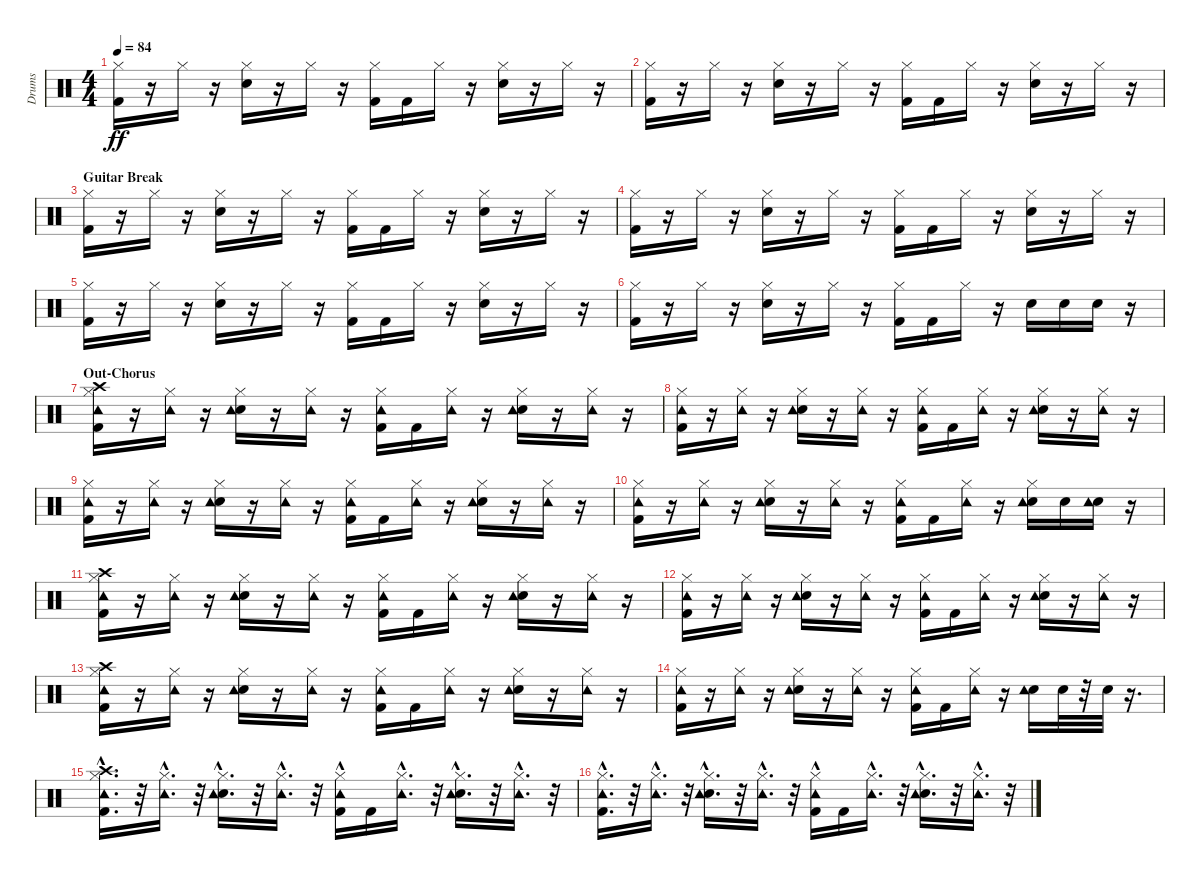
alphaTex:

\track ("Drums" "Drums") {instrument percussion}
\staff {score}
\articulation defaults
\ts (4 4)
\tempo 84
\clef neutral
\ks c
("Kick (hit) 2" "Hi-Hat (closed)").16{dy ff} r.16 "Hi-Hat (closed)".16 r.16 ("Snare (hit) 2" "Hi-Hat (closed)").16 r.16 "Hi-Hat (closed)".16 r.16 ("Kick (hit) 2" "Hi-Hat (closed)").16 "Kick (hit) 2".16 "Hi-Hat (closed)".16 r.16 ("Snare (hit) 2" "Hi-Hat (closed)").16 r.16 "Hi-Hat (closed)".16 r.16 |
("Kick (hit) 2" "Hi-Hat (closed)").16 r.16 "Hi-Hat (closed)".16 r.16 ("Snare (hit) 2" "Hi-Hat (closed)").16 r.16 "Hi-Hat (closed)".16 r.16 ("Kick (hit) 2" "Hi-Hat (closed)").16 "Kick (hit) 2".16 "Hi-Hat (closed)".16 r.16 ("Snare (hit) 2" "Hi-Hat (closed)").16 r.16 "Hi-Hat (closed)".16 r.16 |
\section ("" "Guitar Break")
("Kick (hit) 2" "Hi-Hat (closed)").16 r.16 "Hi-Hat (closed)".16 r.16 ("Snare (hit) 2" "Hi-Hat (closed)").16 r.16 "Hi-Hat (closed)".16 r.16 ("Kick (hit) 2" "Hi-Hat (closed)").16 "Kick (hit) 2".16 "Hi-Hat (closed)".16 r.16 ("Snare (hit) 2" "Hi-Hat (closed)").16 r.16 "Hi-Hat (closed)".16 r.16 |
("Kick (hit) 2" "Hi-Hat (closed)").16 r.16 "Hi-Hat (closed)".16 r.16 ("Snare (hit) 2" "Hi-Hat (closed)").16 r.16 "Hi-Hat (closed)".16 r.16 ("Kick (hit) 2" "Hi-Hat (closed)").16 "Kick (hit) 2".16 "Hi-Hat (closed)".16 r.16 ("Snare (hit) 2" "Hi-Hat (closed)").16 r.16 "Hi-Hat (closed)".16 r.16 |
("Kick (hit) 2" "Hi-Hat (closed)").16 r.16 "Hi-Hat (closed)".16 r.16 ("Snare (hit) 2" "Hi-Hat (closed)").16 r.16 "Hi-Hat (closed)".16 r.16 ("Kick (hit) 2" "Hi-Hat (closed)").16 "Kick (hit) 2".16 "Hi-Hat (closed)".16 r.16 ("Snare (hit) 2" "Hi-Hat (closed)").16 r.16 "Hi-Hat (closed)".16 r.16 |
("Kick (hit) 2" "Hi-Hat (closed)").16 r.16 "Hi-Hat (closed)".16 r.16 ("Snare (hit) 2" "Hi-Hat (closed)").16 r.16 "Hi-Hat (closed)".16 r.16 ("Kick (hit) 2" "Hi-Hat (closed)").16 "Kick (hit) 2".16 "Hi-Hat (closed)".16 r.16 "Snare (hit) 2".16 "Snare (hit) 2".16 "Snare (hit) 2".16 r.16 |
\section ("" "Out-Chorus")
("Kick (hit) 2" "Hi-Hat (closed)" "Crash high (hit)" "Tambourine (hit)").16 r.16 ("Hi-Hat (closed)" "Tambourine (hit)").16 r.16 ("Snare (hit) 2" "Hi-Hat (closed)" "Tambourine (hit)").16 r.16 ("Hi-Hat (closed)" "Tambourine (hit)").16 r.16 ("Kick (hit) 2" "Hi-Hat (closed)" "Tambourine (hit)").16 "Kick (hit) 2".16 ("Hi-Hat (closed)" "Tambourine (hit)").16 r.16 ("Snare (hit) 2" "Hi-Hat (closed)" "Tambourine (hit)").16 r.16 ("Hi-Hat (closed)" "Tambourine (hit)").16 r.16 |
("Kick (hit) 2" "Hi-Hat (closed)" "Tambourine (hit)").16 r.16 ("Hi-Hat (closed)" "Tambourine (hit)").16 r.16 ("Snare (hit) 2" "Hi-Hat (closed)" "Tambourine (hit)").16 r.16 ("Hi-Hat (closed)" "Tambourine (hit)").16 r.16 ("Kick (hit) 2" "Hi-Hat (closed)" "Tambourine (hit)").16 "Kick (hit) 2".16 ("Hi-Hat (closed)" "Tambourine (hit)").16 r.16 ("Snare (hit) 2" "Hi-Hat (closed)" "Tambourine (hit)").16 r.16 ("Hi-Hat (closed)" "Tambourine (hit)").16 r.16 |
("Kick (hit) 2" "Hi-Hat (closed)" "Tambourine (hit)").16 r.16 ("Hi-Hat (closed)" "Tambourine (hit)").16 r.16 ("Snare (hit) 2" "Hi-Hat (closed)" "Tambourine (hit)").16 r.16 ("Hi-Hat (closed)" "Tambourine (hit)").16 r.16 ("Kick (hit) 2" "Hi-Hat (closed)" "Tambourine (hit)").16 "Kick (hit) 2".16 ("Hi-Hat (closed)" "Tambourine (hit)").16 r.16 ("Snare (hit) 2" "Hi-Hat (closed)" "Tambourine (hit)").16 r.16 ("Hi-Hat (closed)" "Tambourine (hit)").16 r.16 |
("Kick (hit) 2" "Hi-Hat (closed)" "Tambourine (hit)").16 r.16 ("Hi-Hat (closed)" "Tambourine (hit)").16 r.16 ("Snare (hit) 2" "Hi-Hat (closed)" "Tambourine (hit)").16 r.16 ("Hi-Hat (closed)" "Tambourine (hit)").16 r.16 ("Kick (hit) 2" "Hi-Hat (closed)" "Tambourine (hit)").16 "Kick (hit) 2".16 ("Hi-Hat (closed)" "Tambourine (hit)").16 r.16 ("Snare (hit) 2" "Hi-Hat (closed)" "Tambourine (hit)").16 "Snare (hit) 2".16 ("Snare (hit) 2" "Tambourine (hit)").16 r.16 |
("Kick (hit) 2" "Hi-Hat (closed)" "Crash high (hit)" "Tambourine (hit)").16 r.16 ("Hi-Hat (closed)" "Tambourine (hit)").16 r.16 ("Snare (hit) 2" "Hi-Hat (closed)" "Tambourine (hit)").16 r.16 ("Hi-Hat (closed)" "Tambourine (hit)").16 r.16 ("Kick (hit) 2" "Hi-Hat (closed)" "Tambourine (hit)").16 "Kick (hit) 2".16 ("Hi-Hat (closed)" "Tambourine (hit)").16 r.16 ("Snare (hit) 2" "Hi-Hat (closed)" "Tambourine (hit)").16 r.16 ("Hi-Hat (closed)" "Tambourine (hit)").16 r.16 |
("Kick (hit) 2" "Hi-Hat (closed)" "Tambourine (hit)").16 r.16 ("Hi-Hat (closed)" "Tambourine (hit)").16 r.16 ("Snare (hit) 2" "Hi-Hat (closed)" "Tambourine (hit)").16 r.16 ("Hi-Hat (closed)" "Tambourine (hit)").16 r.16 ("Kick (hit) 2" "Hi-Hat (closed)" "Tambourine (hit)").16 "Kick (hit) 2".16 ("Hi-Hat (closed)" "Tambourine (hit)").16 r.16 ("Snare (hit) 2" "Hi-Hat (closed)" "Tambourine (hit)").16 r.16 ("Hi-Hat (closed)" "Tambourine (hit)").16 r.16 |
("Kick (hit) 2" "Hi-Hat (closed)" "Crash high (hit)" "Tambourine (hit)").16 r.16 ("Hi-Hat (closed)" "Tambourine (hit)").16 r.16 ("Snare (hit) 2" "Hi-Hat (closed)" "Tambourine (hit)").16 r.16 ("Hi-Hat (closed)" "Tambourine (hit)").16 r.16 ("Kick (hit) 2" "Hi-Hat (closed)" "Tambourine (hit)").16 "Kick (hit) 2".16 ("Hi-Hat (closed)" "Tambourine (hit)").16 r.16 ("Snare (hit) 2" "Hi-Hat (closed)" "Tambourine (hit)").16 r.16 ("Hi-Hat (closed)" "Tambourine (hit)").16 r.16 |
("Kick (hit) 2" "Hi-Hat (closed)" "Tambourine (hit)").16 r.16 ("Hi-Hat (closed)" "Tambourine (hit)").16 r.16 ("Snare (hit) 2" "Hi-Hat (closed)" "Tambourine (hit)").16 r.16 ("Hi-Hat (closed)" "Tambourine (hit)").16 r.16 ("Kick (hit) 2" "Hi-Hat (closed)" "Tambourine (hit)").16 "Kick (hit) 2".16 ("Hi-Hat (closed)" "Tambourine (hit)").16 r.16 ("Snare (hit) 2" "Tambourine (hit)").16 "Snare (hit) 2".32 r.32 "Snare (hit) 2".32 r.16{d} |
("Kick (hit) 2" "Hi-Hat (closed)" "Crash high (hit)" "Tambourine (hit)"{hac}).16{d} r.32 ("Hi-Hat (closed)" "Tambourine (hit)"{hac}).16{d} r.32 ("Snare (hit) 2" "Hi-Hat (closed)" "Tambourine (hit)"{hac}).16{d} r.32 ("Hi-Hat (closed)" "Tambourine (hit)"{hac}).16{d} r.32 ("Kick (hit) 2" "Hi-Hat (closed)" "Tambourine (hit)"{hac}).16 "Kick (hit) 2".16 ("Hi-Hat (closed)" "Tambourine (hit)"{hac}).16{d} r.32 ("Snare (hit) 2" "Hi-Hat (closed)" "Tambourine (hit)"{hac}).16{d} r.32 ("Hi-Hat (closed)" "Tambourine (hit)"{hac}).16{d} r.32 |
("Kick (hit) 2" "Hi-Hat (closed)" "Tambourine (hit)"{hac}).16{d} r.32 ("Hi-Hat (closed)" "Tambourine (hit)"{hac}).16{d} r.32 ("Snare (hit) 2" "Hi-Hat (closed)" "Tambourine (hit)"{hac}).16{d} r.32 ("Hi-Hat (closed)" "Tambourine (hit)"{hac}).16{d} r.32 ("Kick (hit) 2" "Hi-Hat (closed)" "Tambourine (hit)"{hac}).16 "Kick (hit) 2".16 ("Hi-Hat (closed)" "Tambourine (hit)"{hac}).16{d} r.32 ("Snare (hit) 2" "Hi-Hat (closed)" "Tambourine (hit)"{hac}).16{d} r.32 ("Hi-Hat (closed)" "Tambourine (hit)"{hac}).16{d} r.32
